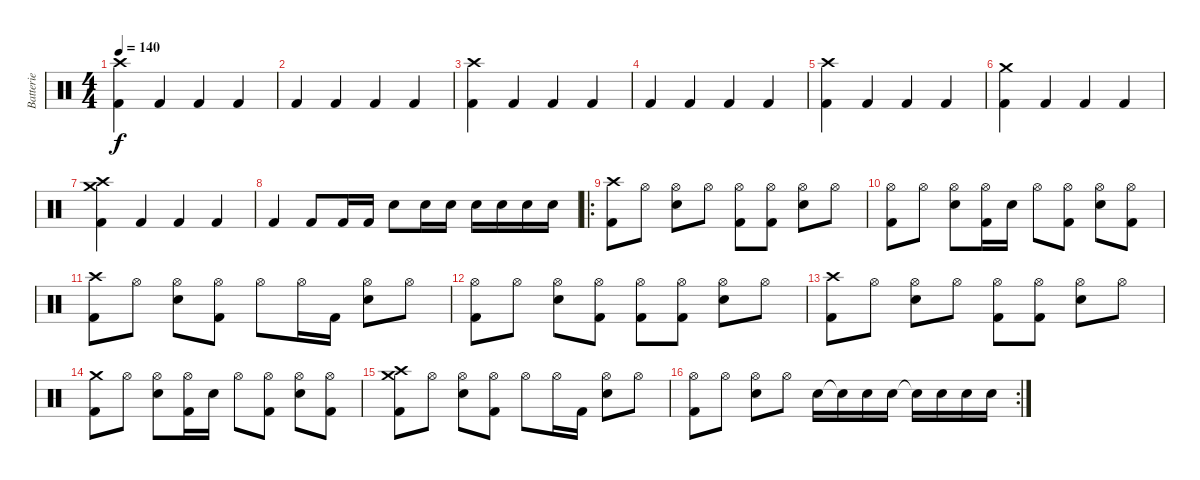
\track ("Batterie" "Batterie") {instrument percussion}
\staff {score}
\articulation defaults
\ts (4 4)
\tempo 140
\clef neutral
\ks c
("Crash high (hit)" "Kick (hit) 2").4{dy f} "Kick (hit) 2".4 "Kick (hit) 2".4 "Kick (hit) 2".4 |
"Kick (hit) 2".4 "Kick (hit) 2".4 "Kick (hit) 2".4 "Kick (hit) 2".4 |
("Crash high (hit)" "Kick (hit) 2").4 "Kick (hit) 2".4 "Kick (hit) 2".4 "Kick (hit) 2".4 |
"Kick (hit) 2".4 "Kick (hit) 2".4 "Kick (hit) 2".4 "Kick (hit) 2".4 |
("Crash high (hit)" "Kick (hit) 2").4 "Kick (hit) 2".4 "Kick (hit) 2".4 "Kick (hit) 2".4 |
("Crash medium (hit)" "Kick (hit) 2").4 "Kick (hit) 2".4 "Kick (hit) 2".4 "Kick (hit) 2".4 |
("Crash high (hit)" "Crash medium (hit)" "Kick (hit) 2").4 "Kick (hit) 2".4 "Kick (hit) 2".4 "Kick (hit) 2".4 |
"Kick (hit) 2".4 "Kick (hit) 2".8 "Kick (hit) 2".16 "Kick (hit) 2".16 "Snare (hit) 2".8 "Snare (hit) 2".16 "Snare (hit) 2".16 "Snare (hit) 2".16 "Snare (hit) 2".16 "Snare (hit) 2".16 "Snare (hit) 2".16 |
\ro
("Crash high (hit)" "Kick (hit) 2").8 "Hi-Hat (open)".8 ("Hi-Hat (open)" "Snare (hit) 2").8 "Hi-Hat (open)".8 ("Hi-Hat (open)" "Kick (hit) 2").8 ("Hi-Hat (open)" "Kick (hit) 2").8 ("Hi-Hat (open)" "Snare (hit) 2").8 "Hi-Hat (open)".8 |
("Hi-Hat (open)" "Kick (hit) 2").8 "Hi-Hat (open)".8 ("Hi-Hat (open)" "Snare (hit) 2").8 ("Hi-Hat (open)" "Kick (hit) 2").16 "Snare (hit) 2".16 "Hi-Hat (open)".8 ("Hi-Hat (open)" "Kick (hit) 2").8 ("Hi-Hat (open)" "Snare (hit) 2").8 ("Hi-Hat (open)" "Kick (hit) 2").8 |
("Crash high (hit)" "Kick (hit) 2").8 "Hi-Hat (open)".8 ("Hi-Hat (open)" "Snare (hit) 2").8 ("Hi-Hat (open)" "Kick (hit) 2").8 "Hi-Hat (open)".8 "Hi-Hat (open)".16 "Kick (hit) 2".16 ("Hi-Hat (open)" "Snare (hit) 2").8 "Hi-Hat (open)".8 |
("Hi-Hat (open)" "Kick (hit) 2").8 "Hi-Hat (open)".8 ("Hi-Hat (open)" "Snare (hit) 2").8 ("Hi-Hat (open)" "Kick (hit) 2").8 ("Hi-Hat (open)" "Kick (hit) 2").8 ("Hi-Hat (open)" "Kick (hit) 2").8 ("Hi-Hat (open)" "Snare (hit) 2").8 "Hi-Hat (open)".8 |
("Crash high (hit)" "Kick (hit) 2").8 "Hi-Hat (open)".8 ("Hi-Hat (open)" "Snare (hit) 2").8 "Hi-Hat (open)".8 ("Hi-Hat (open)" "Kick (hit) 2").8 ("Hi-Hat (open)" "Kick (hit) 2").8 ("Hi-Hat (open)" "Snare (hit) 2").8 "Hi-Hat (open)".8 |
("Crash medium (hit)" "Kick (hit) 2").8 "Hi-Hat (open)".8 ("Hi-Hat (open)" "Snare (hit) 2").8 ("Hi-Hat (open)" "Kick (hit) 2").16 "Snare (hit) 2".16 "Hi-Hat (open)".8 ("Hi-Hat (open)" "Kick (hit) 2").8 ("Hi-Hat (open)" "Snare (hit) 2").8 ("Hi-Hat (open)" "Kick (hit) 2").8 |
("Crash high (hit)" "Crash medium (hit)" "Kick (hit) 2").8 "Hi-Hat (open)".8 ("Hi-Hat (open)" "Snare (hit) 2").8 ("Hi-Hat (open)" "Kick (hit) 2").8 "Hi-Hat (open)".8 "Hi-Hat (open)".16 "Kick (hit) 2".16 ("Hi-Hat (open)" "Snare (hit) 2").8 "Hi-Hat (open)".8 |
\rc 2
("Hi-Hat (open)" "Kick (hit) 2").8 "Hi-Hat (open)".8 ("Hi-Hat (open)" "Snare (hit) 2").8 "Hi-Hat (open)".8 "Snare (hit) 2".16 "Snare (hit) 2"{t}.16 "Snare (hit) 2".16 "Snare (hit) 2".16 "Snare (hit) 2"{t}.16 "Snare (hit) 2".16 "Snare (hit) 2".16 "Snare (hit) 2".16
